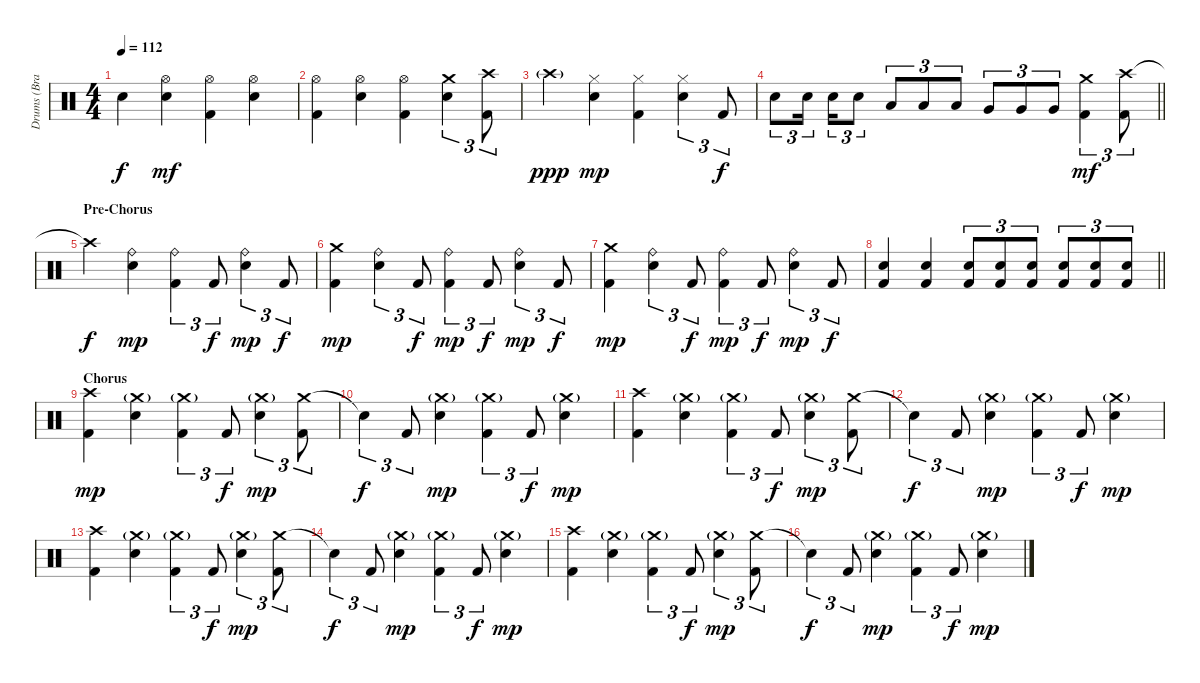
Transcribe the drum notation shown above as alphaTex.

\track ("Drums (Brandon Saller)" "Drums (Bra") {instrument percussion}
\staff {score}
\articulation defaults
\ts (4 4)
\tempo 112
\clef neutral
\ks c "Snare (hit)"{t}.4{dy f}
("Hi-Hat (open)" "Electric Snare (hit)").4{dy mf} ("Hi-Hat (open)" "Kick (hit) 2").4 ("Hi-Hat (open)" "Electric Snare (hit)").4 |
("Hi-Hat (open)" "Kick (hit) 2").4 ("Hi-Hat (open)" "Electric Snare (hit)").4 ("Hi-Hat (open)" "Kick (hit) 2").4 ("Crash medium (hit)" "Electric Snare (hit)").4{tu (3 2)} ("Crash high (hit)" "Kick (hit) 2").8{tu (3 2)} |
"Crash high (hit)"{g}.4{dy ppp} ("Hi-Hat (closed)" "Electric Snare (hit)").4{dy mp} ("Hi-Hat (closed)" "Kick (hit) 2").4 ("Hi-Hat (closed)" "Electric Snare (hit)").4{tu (3 2)} "Kick (hit) 2".8{tu (3 2) dy f} |
\barLineRight lightlight "Electric Snare (hit)".8{tu (3 2)} "Electric Snare (hit)".16{tu (3 2) beam splitsecondary} "Electric Snare (hit)".16{tu (3 2)} "Electric Snare (hit)".8{tu (3 2)} "Low Tom (hit)".8{tu (3 2)} "Low Tom (hit)".8{tu (3 2)} "Low Tom (hit)".8{tu (3 2)} "Very Low Tom (hit)".8{tu (3 2)} "Very Low Tom (hit)".8{tu (3 2)} "Very Low Tom (hit)".8{tu (3 2)}
("Crash medium (hit)" "Kick (hit) 2").4{tu (3 2) dy mf} ("Crash high (hit)" "Kick (hit) 2").8{tu (3 2)} |
\section ("" "Pre-Chorus")
"Crash high (hit)"{t}.4{dy f} ("Ride (bell)" "Electric Snare (hit)").4{dy mp} ("Ride (bell)" "Kick (hit) 2").4{tu (3 2)} "Kick (hit) 2".8{tu (3 2) dy f} ("Ride (bell)" "Electric Snare (hit)").4{tu (3 2) dy mp} "Kick (hit) 2".8{tu (3 2) dy f} |
("Crash medium (hit)" "Kick (hit) 2").4{dy mp} ("Ride (bell)" "Electric Snare (hit)").4{tu (3 2)} "Kick (hit) 2".8{tu (3 2) dy f} ("Ride (bell)" "Kick (hit) 2").4{tu (3 2) dy mp} "Kick (hit) 2".8{tu (3 2) dy f} ("Ride (bell)" "Electric Snare (hit)").4{tu (3 2) dy mp} "Kick (hit) 2".8{tu (3 2) dy f} |
("Crash medium (hit)" "Kick (hit) 2").4{dy mp} ("Ride (bell)" "Electric Snare (hit)").4{tu (3 2)} "Kick (hit) 2".8{tu (3 2) dy f} ("Ride (bell)" "Kick (hit) 2").4{tu (3 2) dy mp} "Kick (hit) 2".8{tu (3 2) dy f} ("Ride (bell)" "Electric Snare (hit)").4{tu (3 2) dy mp} "Kick (hit) 2".8{tu (3 2) dy f} |
\barLineRight lightlight
("Electric Snare (hit)" "Kick (hit) 2").4 ("Electric Snare (hit)" "Kick (hit) 2").4 ("Electric Snare (hit)" "Kick (hit) 2").8{tu (3 2)} ("Electric Snare (hit)" "Kick (hit) 2").8{tu (3 2)} ("Electric Snare (hit)" "Kick (hit) 2").8{tu (3 2)} ("Electric Snare (hit)" "Kick (hit) 2").8{tu (3 2)} ("Electric Snare (hit)" "Kick (hit) 2").8{tu (3 2)} ("Electric Snare (hit)" "Kick (hit) 2").8{tu (3 2)} |
\section ("" "Chorus")
("Crash high (hit)" "Kick (hit) 2").4{dy mp} ("Crash medium (hit)"{g} "Electric Snare (hit)").4 ("Crash medium (hit)"{g} "Kick (hit) 2").4{tu (3 2)} "Kick (hit) 2".8{tu (3 2) dy f} ("Crash medium (hit)"{g} "Electric Snare (hit)").4{tu (3 2) dy mp} ("Crash medium (hit)" "Kick (hit) 2").8{tu (3 2)} |
"Snare (hit)"{t}.4{tu (3 2) dy f} "Kick (hit) 2".8{tu (3 2)} ("Crash medium (hit)"{g} "Electric Snare (hit)").4{dy mp} ("Crash medium (hit)"{g} "Kick (hit) 2").4{tu (3 2)} "Kick (hit) 2".8{tu (3 2) dy f} ("Crash medium (hit)"{g} "Electric Snare (hit)").4{dy mp} |
("Crash high (hit)" "Kick (hit) 2").4 ("Crash medium (hit)"{g} "Electric Snare (hit)").4 ("Crash medium (hit)"{g} "Kick (hit) 2").4{tu (3 2)} "Kick (hit) 2".8{tu (3 2) dy f} ("Crash medium (hit)"{g} "Electric Snare (hit)").4{tu (3 2) dy mp} ("Crash medium (hit)" "Kick (hit) 2").8{tu (3 2)} |
"Snare (hit)"{t}.4{tu (3 2) dy f} "Kick (hit) 2".8{tu (3 2)} ("Crash medium (hit)"{g} "Electric Snare (hit)").4{dy mp} ("Crash medium (hit)"{g} "Kick (hit) 2").4{tu (3 2)} "Kick (hit) 2".8{tu (3 2) dy f} ("Crash medium (hit)"{g} "Electric Snare (hit)").4{dy mp} |
("Crash high (hit)" "Kick (hit) 2").4 ("Crash medium (hit)"{g} "Electric Snare (hit)").4 ("Crash medium (hit)"{g} "Kick (hit) 2").4{tu (3 2)} "Kick (hit) 2".8{tu (3 2) dy f} ("Crash medium (hit)"{g} "Electric Snare (hit)").4{tu (3 2) dy mp} ("Crash medium (hit)" "Kick (hit) 2").8{tu (3 2)} |
"Snare (hit)"{t}.4{tu (3 2) dy f} "Kick (hit) 2".8{tu (3 2)} ("Crash medium (hit)"{g} "Electric Snare (hit)").4{dy mp} ("Crash medium (hit)"{g} "Kick (hit) 2").4{tu (3 2)} "Kick (hit) 2".8{tu (3 2) dy f} ("Crash medium (hit)"{g} "Electric Snare (hit)").4{dy mp} |
("Crash high (hit)" "Kick (hit) 2").4 ("Crash medium (hit)"{g} "Electric Snare (hit)").4 ("Crash medium (hit)"{g} "Kick (hit) 2").4{tu (3 2)} "Kick (hit) 2".8{tu (3 2) dy f} ("Crash medium (hit)"{g} "Electric Snare (hit)").4{tu (3 2) dy mp} ("Crash medium (hit)" "Kick (hit) 2").8{tu (3 2)} |
"Snare (hit)"{t}.4{tu (3 2) dy f} "Kick (hit) 2".8{tu (3 2)} ("Crash medium (hit)"{g} "Electric Snare (hit)").4{dy mp} ("Crash medium (hit)"{g} "Kick (hit) 2").4{tu (3 2)} "Kick (hit) 2".8{tu (3 2) dy f} ("Crash medium (hit)"{g} "Electric Snare (hit)").4{dy mp}
